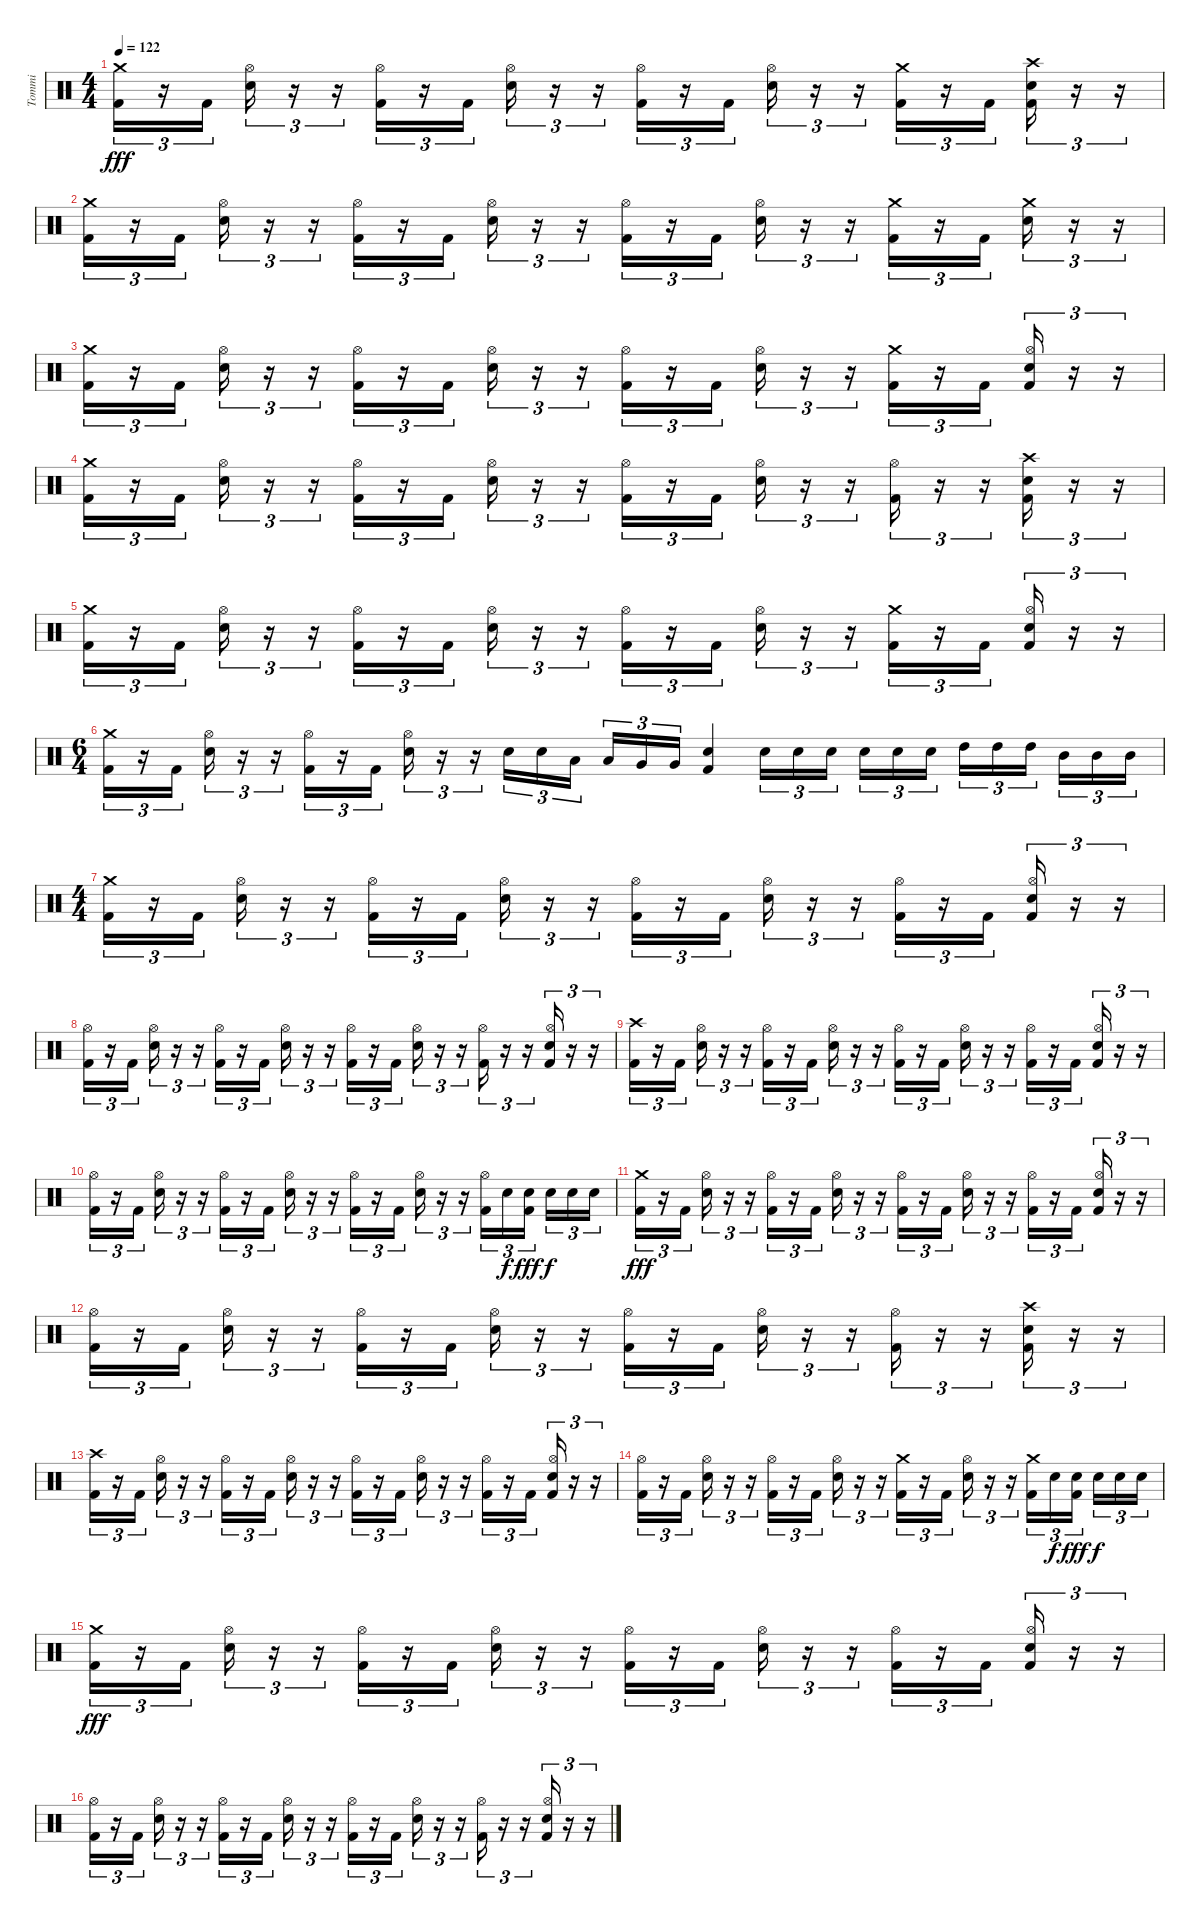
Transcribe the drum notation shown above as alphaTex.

\track ("Tommi" "Tommi") {instrument percussion}
\staff {score}
\articulation defaults
\ts (4 4)
\tempo 122
\clef neutral
\ks c
("Crash medium (hit)" "Kick (hit) 2").16{tu (3 2) dy fff} r.16{tu (3 2)} "Kick (hit) 2".16{tu (3 2)} ("Hi-Hat (open)" "Snare (hit) 2").16{tu (3 2)} r.16{tu (3 2)} r.16{tu (3 2)} ("Hi-Hat (open)" "Kick (hit) 2").16{tu (3 2)} r.16{tu (3 2)} "Kick (hit) 2".16{tu (3 2)} ("Hi-Hat (open)" "Snare (hit) 2").16{tu (3 2)} r.16{tu (3 2)} r.16{tu (3 2)} ("Hi-Hat (open)" "Kick (hit) 2").16{tu (3 2)} r.16{tu (3 2)} "Kick (hit) 2".16{tu (3 2)} ("Hi-Hat (open)" "Snare (hit) 2").16{tu (3 2)} r.16{tu (3 2)} r.16{tu (3 2)} ("Crash medium (hit)" "Kick (hit) 2").16{tu (3 2)} r.16{tu (3 2)} "Kick (hit) 2".16{tu (3 2)} ("Crash high (hit)" "Snare (hit) 2" "Kick (hit) 2").16{tu (3 2)} r.16{tu (3 2)} r.16{tu (3 2)} |
("Crash medium (hit)" "Kick (hit) 2").16{tu (3 2)} r.16{tu (3 2)} "Kick (hit) 2".16{tu (3 2)} ("Hi-Hat (open)" "Snare (hit) 2").16{tu (3 2)} r.16{tu (3 2)} r.16{tu (3 2)} ("Hi-Hat (open)" "Kick (hit) 2").16{tu (3 2)} r.16{tu (3 2)} "Kick (hit) 2".16{tu (3 2)} ("Hi-Hat (open)" "Snare (hit) 2").16{tu (3 2)} r.16{tu (3 2)} r.16{tu (3 2)} ("Hi-Hat (open)" "Kick (hit) 2").16{tu (3 2)} r.16{tu (3 2)} "Kick (hit) 2".16{tu (3 2)} ("Hi-Hat (open)" "Snare (hit) 2").16{tu (3 2)} r.16{tu (3 2)} r.16{tu (3 2)} ("Crash medium (hit)" "Kick (hit) 2").16{tu (3 2)} r.16{tu (3 2)} "Kick (hit) 2".16{tu (3 2)} ("Crash medium (hit)" "Snare (hit) 2").16{tu (3 2)} r.16{tu (3 2)} r.16{tu (3 2)} |
("Crash medium (hit)" "Kick (hit) 2").16{tu (3 2)} r.16{tu (3 2)} "Kick (hit) 2".16{tu (3 2)} ("Hi-Hat (open)" "Snare (hit) 2").16{tu (3 2)} r.16{tu (3 2)} r.16{tu (3 2)} ("Hi-Hat (open)" "Kick (hit) 2").16{tu (3 2)} r.16{tu (3 2)} "Kick (hit) 2".16{tu (3 2)} ("Hi-Hat (open)" "Snare (hit) 2").16{tu (3 2)} r.16{tu (3 2)} r.16{tu (3 2)} ("Hi-Hat (open)" "Kick (hit) 2").16{tu (3 2)} r.16{tu (3 2)} "Kick (hit) 2".16{tu (3 2)} ("Hi-Hat (open)" "Snare (hit) 2").16{tu (3 2)} r.16{tu (3 2)} r.16{tu (3 2)} ("Crash medium (hit)" "Kick (hit) 2").16{tu (3 2)} r.16{tu (3 2)} "Kick (hit) 2".16{tu (3 2)} ("Hi-Hat (open)" "Snare (hit) 2" "Kick (hit) 2").16{tu (3 2)} r.16{tu (3 2)} r.16{tu (3 2)} |
("Crash medium (hit)" "Kick (hit) 2").16{tu (3 2)} r.16{tu (3 2)} "Kick (hit) 2".16{tu (3 2)} ("Hi-Hat (open)" "Snare (hit) 2").16{tu (3 2)} r.16{tu (3 2)} r.16{tu (3 2)} ("Hi-Hat (open)" "Kick (hit) 2").16{tu (3 2)} r.16{tu (3 2)} "Kick (hit) 2".16{tu (3 2)} ("Hi-Hat (open)" "Snare (hit) 2").16{tu (3 2)} r.16{tu (3 2)} r.16{tu (3 2)} ("Hi-Hat (open)" "Kick (hit) 2").16{tu (3 2)} r.16{tu (3 2)} "Kick (hit) 2".16{tu (3 2)} ("Hi-Hat (open)" "Snare (hit) 2").16{tu (3 2)} r.16{tu (3 2)} r.16{tu (3 2)} ("Hi-Hat (open)" "Kick (hit) 2").16{tu (3 2)} r.16{tu (3 2)} r.16{tu (3 2)} ("Crash high (hit)" "Snare (hit) 2" "Kick (hit) 2").16{tu (3 2)} r.16{tu (3 2)} r.16{tu (3 2)} |
("Crash medium (hit)" "Kick (hit) 2").16{tu (3 2)} r.16{tu (3 2)} "Kick (hit) 2".16{tu (3 2)} ("Hi-Hat (open)" "Snare (hit) 2").16{tu (3 2)} r.16{tu (3 2)} r.16{tu (3 2)} ("Hi-Hat (open)" "Kick (hit) 2").16{tu (3 2)} r.16{tu (3 2)} "Kick (hit) 2".16{tu (3 2)} ("Hi-Hat (open)" "Snare (hit) 2").16{tu (3 2)} r.16{tu (3 2)} r.16{tu (3 2)} ("Hi-Hat (open)" "Kick (hit) 2").16{tu (3 2)} r.16{tu (3 2)} "Kick (hit) 2".16{tu (3 2)} ("Hi-Hat (open)" "Snare (hit) 2").16{tu (3 2)} r.16{tu (3 2)} r.16{tu (3 2)} ("Crash medium (hit)" "Kick (hit) 2").16{tu (3 2)} r.16{tu (3 2)} "Kick (hit) 2".16{tu (3 2)} ("Hi-Hat (open)" "Snare (hit) 2" "Kick (hit) 2").16{tu (3 2)} r.16{tu (3 2)} r.16{tu (3 2)} |
\ts (6 4)
("Crash medium (hit)" "Kick (hit) 2").16{tu (3 2)} r.16{tu (3 2)} "Kick (hit) 2".16{tu (3 2)} ("Hi-Hat (open)" "Snare (hit) 2").16{tu (3 2)} r.16{tu (3 2)} r.16{tu (3 2)} ("Hi-Hat (open)" "Kick (hit) 2").16{tu (3 2)} r.16{tu (3 2)} "Kick (hit) 2".16{tu (3 2)} ("Hi-Hat (open)" "Snare (hit) 2").16{tu (3 2)} r.16{tu (3 2)} r.16{tu (3 2)} "Snare (hit) 2".16{tu (3 2)} "Snare (hit) 2".16{tu (3 2)} "Low Tom (hit)".16{tu (3 2) beam splitsecondary} "Low Tom (hit)".16{tu (3 2)} "Very Low Tom (hit)".16{tu (3 2)} "Very Low Tom (hit)".16{tu (3 2)} ("Snare (hit) 2" "Kick (hit) 2").4 "Snare (hit) 2".16{tu (3 2)} "Snare (hit) 2".16{tu (3 2)} "Snare (hit) 2".16{tu (3 2) beam splitsecondary} "Snare (hit) 2".16{tu (3 2)} "Snare (hit) 2".16{tu (3 2)} "Snare (hit) 2".16{tu (3 2) beam splitsecondary} "High Tom (hit)".16{tu (3 2)} "High Tom (hit)".16{tu (3 2)} "High Tom (hit)".16{tu (3 2) beam splitsecondary} "Mid Tom (hit)".16{tu (3 2)} "Mid Tom (hit)".16{tu (3 2)} "Mid Tom (hit)".16{tu (3 2)} |
\ts (4 4)
("Crash medium (hit)" "Kick (hit) 2").16{tu (3 2)} r.16{tu (3 2)} "Kick (hit) 2".16{tu (3 2)} ("Hi-Hat (open)" "Snare (hit) 2").16{tu (3 2)} r.16{tu (3 2)} r.16{tu (3 2)} ("Hi-Hat (open)" "Kick (hit) 2").16{tu (3 2)} r.16{tu (3 2)} "Kick (hit) 2".16{tu (3 2)} ("Hi-Hat (open)" "Snare (hit) 2").16{tu (3 2)} r.16{tu (3 2)} r.16{tu (3 2)} ("Hi-Hat (open)" "Kick (hit) 2").16{tu (3 2)} r.16{tu (3 2)} "Kick (hit) 2".16{tu (3 2)} ("Hi-Hat (open)" "Snare (hit) 2").16{tu (3 2)} r.16{tu (3 2)} r.16{tu (3 2)} ("Hi-Hat (open)" "Kick (hit) 2").16{tu (3 2)} r.16{tu (3 2)} "Kick (hit) 2".16{tu (3 2)} ("Hi-Hat (open)" "Snare (hit) 2" "Kick (hit) 2").16{tu (3 2)} r.16{tu (3 2)} r.16{tu (3 2)} |
("Hi-Hat (open)" "Kick (hit) 2").16{tu (3 2)} r.16{tu (3 2)} "Kick (hit) 2".16{tu (3 2)} ("Hi-Hat (open)" "Snare (hit) 2").16{tu (3 2)} r.16{tu (3 2)} r.16{tu (3 2)} ("Hi-Hat (open)" "Kick (hit) 2").16{tu (3 2)} r.16{tu (3 2)} "Kick (hit) 2".16{tu (3 2)} ("Hi-Hat (open)" "Snare (hit) 2").16{tu (3 2)} r.16{tu (3 2)} r.16{tu (3 2)} ("Hi-Hat (open)" "Kick (hit) 2").16{tu (3 2)} r.16{tu (3 2)} "Kick (hit) 2".16{tu (3 2)} ("Hi-Hat (open)" "Snare (hit) 2").16{tu (3 2)} r.16{tu (3 2)} r.16{tu (3 2)} ("Hi-Hat (open)" "Kick (hit) 2").16{tu (3 2)} r.16{tu (3 2)} r.16{tu (3 2)} ("Hi-Hat (open)" "Snare (hit) 2" "Kick (hit) 2").16{tu (3 2)} r.16{tu (3 2)} r.16{tu (3 2)} |
("Crash high (hit)" "Kick (hit) 2").16{tu (3 2)} r.16{tu (3 2)} "Kick (hit) 2".16{tu (3 2)} ("Hi-Hat (open)" "Snare (hit) 2").16{tu (3 2)} r.16{tu (3 2)} r.16{tu (3 2)} ("Hi-Hat (open)" "Kick (hit) 2").16{tu (3 2)} r.16{tu (3 2)} "Kick (hit) 2".16{tu (3 2)} ("Hi-Hat (open)" "Snare (hit) 2").16{tu (3 2)} r.16{tu (3 2)} r.16{tu (3 2)} ("Hi-Hat (open)" "Kick (hit) 2").16{tu (3 2)} r.16{tu (3 2)} "Kick (hit) 2".16{tu (3 2)} ("Hi-Hat (open)" "Snare (hit) 2").16{tu (3 2)} r.16{tu (3 2)} r.16{tu (3 2)} ("Hi-Hat (open)" "Kick (hit) 2").16{tu (3 2)} r.16{tu (3 2)} "Kick (hit) 2".16{tu (3 2)} ("Hi-Hat (open)" "Snare (hit) 2" "Kick (hit) 2").16{tu (3 2)} r.16{tu (3 2)} r.16{tu (3 2)} |
("Hi-Hat (open)" "Kick (hit) 2").16{tu (3 2)} r.16{tu (3 2)} "Kick (hit) 2".16{tu (3 2)} ("Hi-Hat (open)" "Snare (hit) 2").16{tu (3 2)} r.16{tu (3 2)} r.16{tu (3 2)} ("Hi-Hat (open)" "Kick (hit) 2").16{tu (3 2)} r.16{tu (3 2)} "Kick (hit) 2".16{tu (3 2)} ("Hi-Hat (open)" "Snare (hit) 2").16{tu (3 2)} r.16{tu (3 2)} r.16{tu (3 2)} ("Hi-Hat (open)" "Kick (hit) 2").16{tu (3 2)} r.16{tu (3 2)} "Kick (hit) 2".16{tu (3 2)} ("Hi-Hat (open)" "Snare (hit) 2").16{tu (3 2)} r.16{tu (3 2)} r.16{tu (3 2)} ("Hi-Hat (open)" "Kick (hit) 2").16{tu (3 2)} "Snare (hit) 2".16{tu (3 2) dy f} ("Snare (hit) 2" "Kick (hit) 2").16{tu (3 2) dy fff beam splitsecondary} "Snare (hit) 2".16{tu (3 2) dy f} "Snare (hit) 2".16{tu (3 2)} "Snare (hit) 2".16{tu (3 2)} |
("Crash medium (hit)" "Kick (hit) 2").16{tu (3 2) dy fff} r.16{tu (3 2)} "Kick (hit) 2".16{tu (3 2)} ("Hi-Hat (open)" "Snare (hit) 2").16{tu (3 2)} r.16{tu (3 2)} r.16{tu (3 2)} ("Hi-Hat (open)" "Kick (hit) 2").16{tu (3 2)} r.16{tu (3 2)} "Kick (hit) 2".16{tu (3 2)} ("Hi-Hat (open)" "Snare (hit) 2").16{tu (3 2)} r.16{tu (3 2)} r.16{tu (3 2)} ("Hi-Hat (open)" "Kick (hit) 2").16{tu (3 2)} r.16{tu (3 2)} "Kick (hit) 2".16{tu (3 2)} ("Hi-Hat (open)" "Snare (hit) 2").16{tu (3 2)} r.16{tu (3 2)} r.16{tu (3 2)} ("Hi-Hat (open)" "Kick (hit) 2").16{tu (3 2)} r.16{tu (3 2)} "Kick (hit) 2".16{tu (3 2)} ("Hi-Hat (open)" "Snare (hit) 2" "Kick (hit) 2").16{tu (3 2)} r.16{tu (3 2)} r.16{tu (3 2)} |
("Hi-Hat (open)" "Kick (hit) 2").16{tu (3 2)} r.16{tu (3 2)} "Kick (hit) 2".16{tu (3 2)} ("Hi-Hat (open)" "Snare (hit) 2").16{tu (3 2)} r.16{tu (3 2)} r.16{tu (3 2)} ("Hi-Hat (open)" "Kick (hit) 2").16{tu (3 2)} r.16{tu (3 2)} "Kick (hit) 2".16{tu (3 2)} ("Hi-Hat (open)" "Snare (hit) 2").16{tu (3 2)} r.16{tu (3 2)} r.16{tu (3 2)} ("Hi-Hat (open)" "Kick (hit) 2").16{tu (3 2)} r.16{tu (3 2)} "Kick (hit) 2".16{tu (3 2)} ("Hi-Hat (open)" "Snare (hit) 2").16{tu (3 2)} r.16{tu (3 2)} r.16{tu (3 2)} ("Hi-Hat (open)" "Kick (hit) 2").16{tu (3 2)} r.16{tu (3 2)} r.16{tu (3 2)} ("Crash high (hit)" "Snare (hit) 2" "Kick (hit) 2").16{tu (3 2)} r.16{tu (3 2)} r.16{tu (3 2)} |
("Crash high (hit)" "Kick (hit) 2").16{tu (3 2)} r.16{tu (3 2)} "Kick (hit) 2".16{tu (3 2)} ("Hi-Hat (open)" "Snare (hit) 2").16{tu (3 2)} r.16{tu (3 2)} r.16{tu (3 2)} ("Hi-Hat (open)" "Kick (hit) 2").16{tu (3 2)} r.16{tu (3 2)} "Kick (hit) 2".16{tu (3 2)} ("Hi-Hat (open)" "Snare (hit) 2").16{tu (3 2)} r.16{tu (3 2)} r.16{tu (3 2)} ("Hi-Hat (open)" "Kick (hit) 2").16{tu (3 2)} r.16{tu (3 2)} "Kick (hit) 2".16{tu (3 2)} ("Hi-Hat (open)" "Snare (hit) 2").16{tu (3 2)} r.16{tu (3 2)} r.16{tu (3 2)} ("Hi-Hat (open)" "Kick (hit) 2").16{tu (3 2)} r.16{tu (3 2)} "Kick (hit) 2".16{tu (3 2)} ("Hi-Hat (open)" "Snare (hit) 2" "Kick (hit) 2").16{tu (3 2)} r.16{tu (3 2)} r.16{tu (3 2)} |
("Hi-Hat (open)" "Kick (hit) 2").16{tu (3 2)} r.16{tu (3 2)} "Kick (hit) 2".16{tu (3 2)} ("Hi-Hat (open)" "Snare (hit) 2").16{tu (3 2)} r.16{tu (3 2)} r.16{tu (3 2)} ("Hi-Hat (open)" "Kick (hit) 2").16{tu (3 2)} r.16{tu (3 2)} "Kick (hit) 2".16{tu (3 2)} ("Hi-Hat (open)" "Snare (hit) 2").16{tu (3 2)} r.16{tu (3 2)} r.16{tu (3 2)} ("Crash medium (hit)" "Kick (hit) 2").16{tu (3 2)} r.16{tu (3 2)} "Kick (hit) 2".16{tu (3 2)} ("Hi-Hat (open)" "Snare (hit) 2").16{tu (3 2)} r.16{tu (3 2)} r.16{tu (3 2)} ("Crash medium (hit)" "Kick (hit) 2").16{tu (3 2)} "Snare (hit) 2".16{tu (3 2) dy f} ("Snare (hit) 2" "Kick (hit) 2").16{tu (3 2) dy fff beam splitsecondary} "Snare (hit) 2".16{tu (3 2) dy f} "Snare (hit) 2".16{tu (3 2)} "Snare (hit) 2".16{tu (3 2)} |
("Crash medium (hit)" "Kick (hit) 2").16{tu (3 2) dy fff} r.16{tu (3 2)} "Kick (hit) 2".16{tu (3 2)} ("Hi-Hat (open)" "Snare (hit) 2").16{tu (3 2)} r.16{tu (3 2)} r.16{tu (3 2)} ("Hi-Hat (open)" "Kick (hit) 2").16{tu (3 2)} r.16{tu (3 2)} "Kick (hit) 2".16{tu (3 2)} ("Hi-Hat (open)" "Snare (hit) 2").16{tu (3 2)} r.16{tu (3 2)} r.16{tu (3 2)} ("Hi-Hat (open)" "Kick (hit) 2").16{tu (3 2)} r.16{tu (3 2)} "Kick (hit) 2".16{tu (3 2)} ("Hi-Hat (open)" "Snare (hit) 2").16{tu (3 2)} r.16{tu (3 2)} r.16{tu (3 2)} ("Hi-Hat (open)" "Kick (hit) 2").16{tu (3 2)} r.16{tu (3 2)} "Kick (hit) 2".16{tu (3 2)} ("Hi-Hat (open)" "Snare (hit) 2" "Kick (hit) 2").16{tu (3 2)} r.16{tu (3 2)} r.16{tu (3 2)} |
("Hi-Hat (open)" "Kick (hit) 2").16{tu (3 2)} r.16{tu (3 2)} "Kick (hit) 2".16{tu (3 2)} ("Hi-Hat (open)" "Snare (hit) 2").16{tu (3 2)} r.16{tu (3 2)} r.16{tu (3 2)} ("Hi-Hat (open)" "Kick (hit) 2").16{tu (3 2)} r.16{tu (3 2)} "Kick (hit) 2".16{tu (3 2)} ("Hi-Hat (open)" "Snare (hit) 2").16{tu (3 2)} r.16{tu (3 2)} r.16{tu (3 2)} ("Hi-Hat (open)" "Kick (hit) 2").16{tu (3 2)} r.16{tu (3 2)} "Kick (hit) 2".16{tu (3 2)} ("Hi-Hat (open)" "Snare (hit) 2").16{tu (3 2)} r.16{tu (3 2)} r.16{tu (3 2)} ("Hi-Hat (open)" "Kick (hit) 2").16{tu (3 2)} r.16{tu (3 2)} r.16{tu (3 2)} ("Hi-Hat (open)" "Snare (hit) 2" "Kick (hit) 2").16{tu (3 2)} r.16{tu (3 2)} r.16{tu (3 2)}
